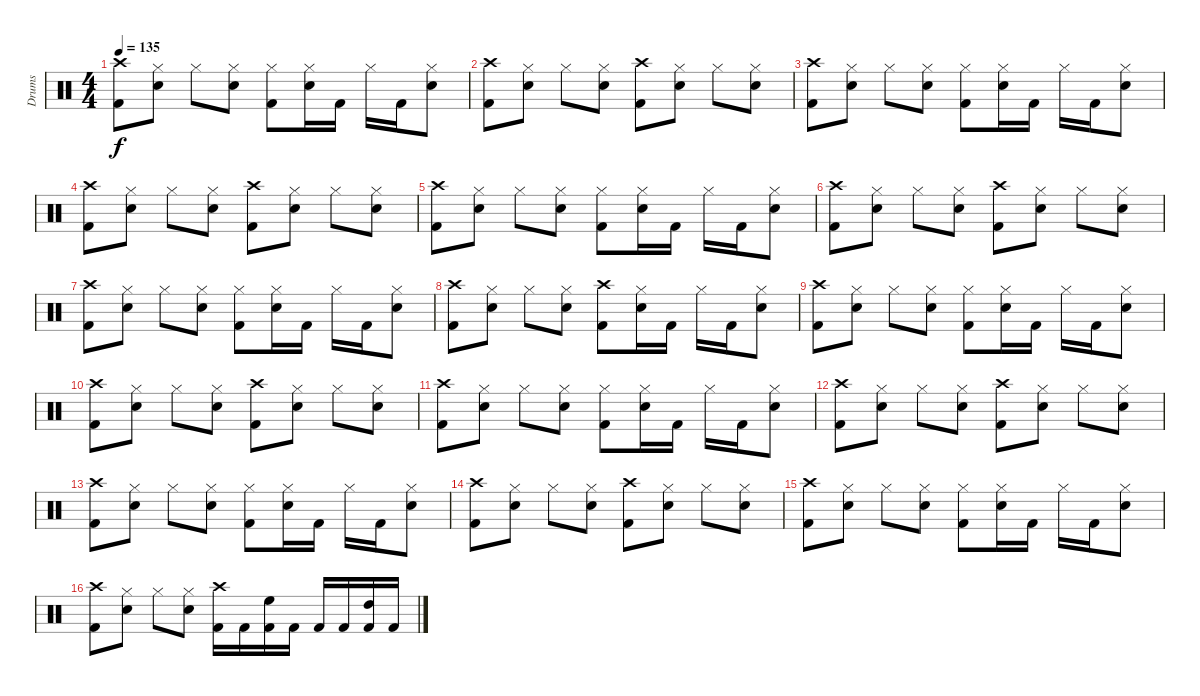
\track ("Drums" "Drums") {instrument percussion}
\staff {score}
\articulation defaults
\ts (4 4)
\tempo 135
\clef neutral
\ks c
("Crash high (hit)" "Kick (hit) 2").8{dy f} ("Hi-Hat (closed)" "Snare (hit) 2").8 "Hi-Hat (closed)".8 ("Hi-Hat (closed)" "Snare (hit) 2").8 ("Hi-Hat (closed)" "Kick (hit) 2").8 ("Hi-Hat (closed)" "Snare (hit) 2").16 "Kick (hit) 2".16 "Hi-Hat (closed)".16 "Kick (hit) 2".16 ("Hi-Hat (closed)" "Snare (hit) 2").8 |
("Crash high (hit)" "Kick (hit) 2").8 ("Hi-Hat (closed)" "Snare (hit) 2").8 "Hi-Hat (closed)".8 ("Hi-Hat (closed)" "Snare (hit) 2").8 ("Crash high (hit)" "Kick (hit) 2").8 ("Hi-Hat (closed)" "Snare (hit) 2").8 "Hi-Hat (closed)".8 ("Hi-Hat (closed)" "Snare (hit) 2").8 |
("Crash high (hit)" "Kick (hit) 2").8 ("Hi-Hat (closed)" "Snare (hit) 2").8 "Hi-Hat (closed)".8 ("Hi-Hat (closed)" "Snare (hit) 2").8 ("Hi-Hat (closed)" "Kick (hit) 2").8 ("Hi-Hat (closed)" "Snare (hit) 2").16 "Kick (hit) 2".16 "Hi-Hat (closed)".16 "Kick (hit) 2".16 ("Hi-Hat (closed)" "Snare (hit) 2").8 |
("Crash high (hit)" "Kick (hit) 2").8 ("Hi-Hat (closed)" "Snare (hit) 2").8 "Hi-Hat (closed)".8 ("Hi-Hat (closed)" "Snare (hit) 2").8 ("Crash high (hit)" "Kick (hit) 2").8 ("Hi-Hat (closed)" "Snare (hit) 2").8 "Hi-Hat (closed)".8 ("Hi-Hat (closed)" "Snare (hit) 2").8 |
("Crash high (hit)" "Kick (hit) 2").8 ("Hi-Hat (closed)" "Snare (hit) 2").8 "Hi-Hat (closed)".8 ("Hi-Hat (closed)" "Snare (hit) 2").8 ("Hi-Hat (closed)" "Kick (hit) 2").8 ("Hi-Hat (closed)" "Snare (hit) 2").16 "Kick (hit) 2".16 "Hi-Hat (closed)".16 "Kick (hit) 2".16 ("Hi-Hat (closed)" "Snare (hit) 2").8 |
("Crash high (hit)" "Kick (hit) 2").8 ("Hi-Hat (closed)" "Snare (hit) 2").8 "Hi-Hat (closed)".8 ("Hi-Hat (closed)" "Snare (hit) 2").8 ("Crash high (hit)" "Kick (hit) 2").8 ("Hi-Hat (closed)" "Snare (hit) 2").8 "Hi-Hat (closed)".8 ("Hi-Hat (closed)" "Snare (hit) 2").8 |
("Crash high (hit)" "Kick (hit) 2").8 ("Hi-Hat (closed)" "Snare (hit) 2").8 "Hi-Hat (closed)".8 ("Hi-Hat (closed)" "Snare (hit) 2").8 ("Hi-Hat (closed)" "Kick (hit) 2").8 ("Hi-Hat (closed)" "Snare (hit) 2").16 "Kick (hit) 2".16 "Hi-Hat (closed)".16 "Kick (hit) 2".16 ("Hi-Hat (closed)" "Snare (hit) 2").8 |
("Crash high (hit)" "Kick (hit) 2").8 ("Hi-Hat (closed)" "Snare (hit) 2").8 "Hi-Hat (closed)".8 ("Hi-Hat (closed)" "Snare (hit) 2").8 ("Crash high (hit)" "Kick (hit) 2").8 ("Hi-Hat (closed)" "Snare (hit) 2").16 "Kick (hit) 2".16 "Hi-Hat (closed)".16 "Kick (hit) 2".16 ("Hi-Hat (closed)" "Snare (hit) 2").8 |
("Crash high (hit)" "Kick (hit) 2").8 ("Hi-Hat (closed)" "Snare (hit) 2").8 "Hi-Hat (closed)".8 ("Hi-Hat (closed)" "Snare (hit) 2").8 ("Hi-Hat (closed)" "Kick (hit) 2").8 ("Hi-Hat (closed)" "Snare (hit) 2").16 "Kick (hit) 2".16 "Hi-Hat (closed)".16 "Kick (hit) 2".16 ("Hi-Hat (closed)" "Snare (hit) 2").8 |
("Crash high (hit)" "Kick (hit) 2").8 ("Hi-Hat (closed)" "Snare (hit) 2").8 "Hi-Hat (closed)".8 ("Hi-Hat (closed)" "Snare (hit) 2").8 ("Crash high (hit)" "Kick (hit) 2").8 ("Hi-Hat (closed)" "Snare (hit) 2").8 "Hi-Hat (closed)".8 ("Hi-Hat (closed)" "Snare (hit) 2").8 |
("Crash high (hit)" "Kick (hit) 2").8 ("Hi-Hat (closed)" "Snare (hit) 2").8 "Hi-Hat (closed)".8 ("Hi-Hat (closed)" "Snare (hit) 2").8 ("Hi-Hat (closed)" "Kick (hit) 2").8 ("Hi-Hat (closed)" "Snare (hit) 2").16 "Kick (hit) 2".16 "Hi-Hat (closed)".16 "Kick (hit) 2".16 ("Hi-Hat (closed)" "Snare (hit) 2").8 |
("Crash high (hit)" "Kick (hit) 2").8 ("Hi-Hat (closed)" "Snare (hit) 2").8 "Hi-Hat (closed)".8 ("Hi-Hat (closed)" "Snare (hit) 2").8 ("Crash high (hit)" "Kick (hit) 2").8 ("Hi-Hat (closed)" "Snare (hit) 2").8 "Hi-Hat (closed)".8 ("Hi-Hat (closed)" "Snare (hit) 2").8 |
("Crash high (hit)" "Kick (hit) 2").8 ("Hi-Hat (closed)" "Snare (hit) 2").8 "Hi-Hat (closed)".8 ("Hi-Hat (closed)" "Snare (hit) 2").8 ("Hi-Hat (closed)" "Kick (hit) 2").8 ("Hi-Hat (closed)" "Snare (hit) 2").16 "Kick (hit) 2".16 "Hi-Hat (closed)".16 "Kick (hit) 2".16 ("Hi-Hat (closed)" "Snare (hit) 2").8 |
("Crash high (hit)" "Kick (hit) 2").8 ("Hi-Hat (closed)" "Snare (hit) 2").8 "Hi-Hat (closed)".8 ("Hi-Hat (closed)" "Snare (hit) 2").8 ("Crash high (hit)" "Kick (hit) 2").8 ("Hi-Hat (closed)" "Snare (hit) 2").8 "Hi-Hat (closed)".8 ("Hi-Hat (closed)" "Snare (hit) 2").8 |
("Crash high (hit)" "Kick (hit) 2").8 ("Hi-Hat (closed)" "Snare (hit) 2").8 "Hi-Hat (closed)".8 ("Hi-Hat (closed)" "Snare (hit) 2").8 ("Hi-Hat (closed)" "Kick (hit) 2").8 ("Hi-Hat (closed)" "Snare (hit) 2").16 "Kick (hit) 2".16 "Hi-Hat (closed)".16 "Kick (hit) 2".16 ("Hi-Hat (closed)" "Snare (hit) 2").8 |
("Crash high (hit)" "Kick (hit) 2").8 ("Hi-Hat (closed)" "Snare (hit) 2").8 "Hi-Hat (closed)".8 ("Hi-Hat (closed)" "Snare (hit) 2").8 ("Crash high (hit)" "Kick (hit) 2").16 "Kick (hit) 2".16 ("High Floor Tom (hit)" "Kick (hit) 2").16 "Kick (hit) 2".16 "Kick (hit) 2".16 "Kick (hit) 2".16 ("High Tom (hit)" "Kick (hit) 2").16 "Kick (hit) 2".16
